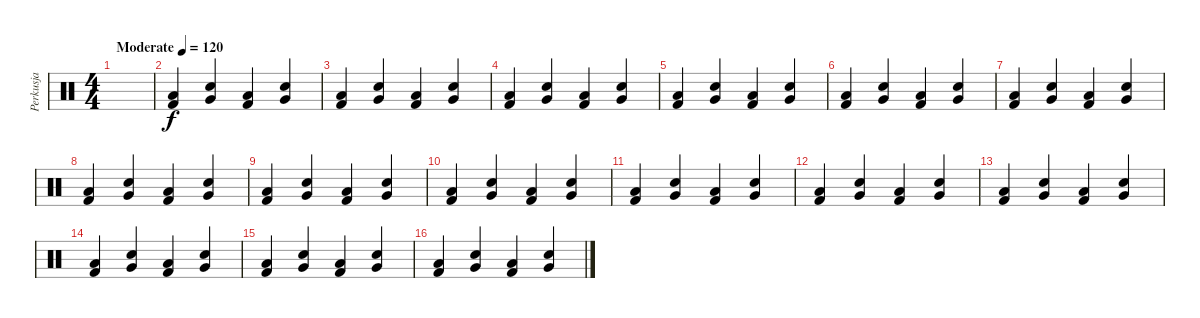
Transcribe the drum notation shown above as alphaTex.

\track ("Perkusja" "Perkusja") {instrument percussion}
\staff {score}
\articulation defaults
\ts (4 4)
\tempo (120 "Moderate")
\clef neutral
\ks c
|
("Kick (hit) 2" "Low Floor Tom (hit)").4 ("Very Low Tom (hit)" "Snare (hit) 2").4 ("Kick (hit) 2" "Low Floor Tom (hit)").4 ("Very Low Tom (hit)" "Snare (hit) 2").4 |
("Kick (hit) 2" "Low Floor Tom (hit)").4 ("Very Low Tom (hit)" "Snare (hit) 2").4 ("Kick (hit) 2" "Low Floor Tom (hit)").4 ("Very Low Tom (hit)" "Snare (hit) 2").4 |
("Kick (hit) 2" "Low Floor Tom (hit)").4 ("Very Low Tom (hit)" "Snare (hit) 2").4 ("Kick (hit) 2" "Low Floor Tom (hit)").4 ("Very Low Tom (hit)" "Snare (hit) 2").4 |
("Kick (hit) 2" "Low Floor Tom (hit)").4 ("Very Low Tom (hit)" "Snare (hit) 2").4 ("Kick (hit) 2" "Low Floor Tom (hit)").4 ("Very Low Tom (hit)" "Snare (hit) 2").4 |
("Kick (hit) 2" "Low Floor Tom (hit)").4 ("Very Low Tom (hit)" "Snare (hit) 2").4 ("Kick (hit) 2" "Low Floor Tom (hit)").4 ("Very Low Tom (hit)" "Snare (hit) 2").4 |
("Kick (hit) 2" "Low Floor Tom (hit)").4 ("Very Low Tom (hit)" "Snare (hit) 2").4 ("Kick (hit) 2" "Low Floor Tom (hit)").4 ("Very Low Tom (hit)" "Snare (hit) 2").4 |
("Kick (hit) 2" "Low Floor Tom (hit)").4 ("Very Low Tom (hit)" "Snare (hit) 2").4 ("Kick (hit) 2" "Low Floor Tom (hit)").4 ("Very Low Tom (hit)" "Snare (hit) 2").4 |
("Kick (hit) 2" "Low Floor Tom (hit)").4 ("Very Low Tom (hit)" "Snare (hit) 2").4 ("Kick (hit) 2" "Low Floor Tom (hit)").4 ("Very Low Tom (hit)" "Snare (hit) 2").4 |
("Kick (hit) 2" "Low Floor Tom (hit)").4 ("Very Low Tom (hit)" "Snare (hit) 2").4 ("Kick (hit) 2" "Low Floor Tom (hit)").4 ("Very Low Tom (hit)" "Snare (hit) 2").4 |
("Kick (hit) 2" "Low Floor Tom (hit)").4 ("Very Low Tom (hit)" "Snare (hit) 2").4 ("Kick (hit) 2" "Low Floor Tom (hit)").4 ("Very Low Tom (hit)" "Snare (hit) 2").4 |
("Kick (hit) 2" "Low Floor Tom (hit)").4 ("Very Low Tom (hit)" "Snare (hit) 2").4 ("Kick (hit) 2" "Low Floor Tom (hit)").4 ("Very Low Tom (hit)" "Snare (hit) 2").4 |
("Kick (hit) 2" "Low Floor Tom (hit)").4 ("Very Low Tom (hit)" "Snare (hit) 2").4 ("Kick (hit) 2" "Low Floor Tom (hit)").4 ("Very Low Tom (hit)" "Snare (hit) 2").4 |
("Kick (hit) 2" "Low Floor Tom (hit)").4 ("Very Low Tom (hit)" "Snare (hit) 2").4 ("Kick (hit) 2" "Low Floor Tom (hit)").4 ("Very Low Tom (hit)" "Snare (hit) 2").4 |
("Kick (hit) 2" "Low Floor Tom (hit)").4 ("Very Low Tom (hit)" "Snare (hit) 2").4 ("Kick (hit) 2" "Low Floor Tom (hit)").4 ("Very Low Tom (hit)" "Snare (hit) 2").4 |
("Kick (hit) 2" "Low Floor Tom (hit)").4 ("Very Low Tom (hit)" "Snare (hit) 2").4 ("Kick (hit) 2" "Low Floor Tom (hit)").4 ("Very Low Tom (hit)" "Snare (hit) 2").4
